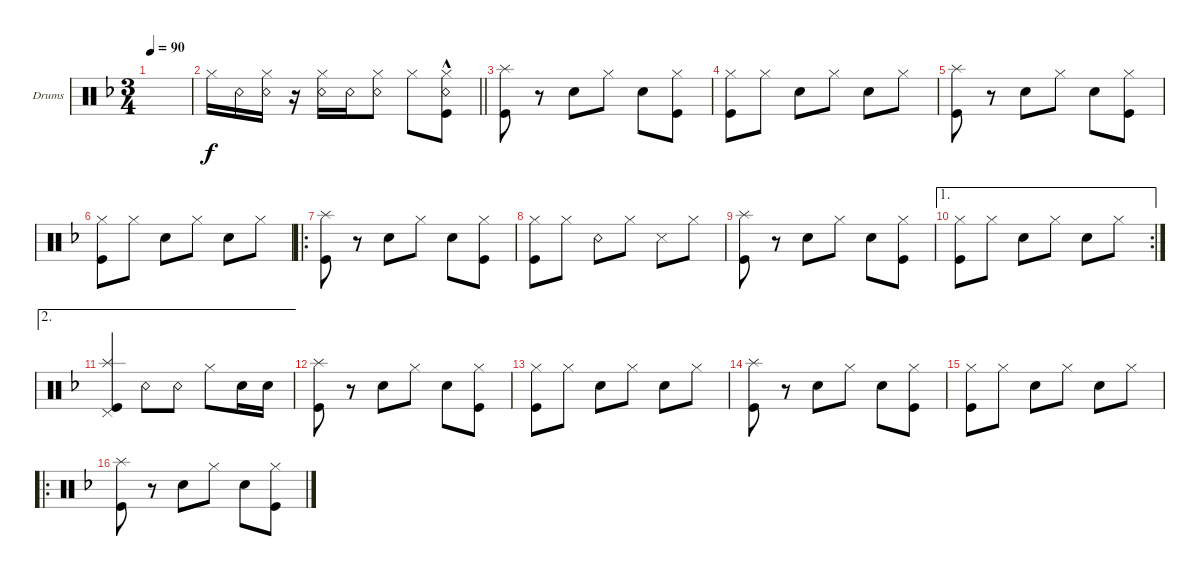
\defaultSystemsLayout 4
\bracketExtendMode groupsimilarinstruments
\firstSystemTrackNameOrientation horizontal
\otherSystemsTrackNameOrientation horizontal
\track ("Drumkit" "Drums") {instrument percussion}
\staff {score}
\articulation defaults
\ts (3 4)
\tempo 90
\clef neutral
\ks dminor
|
\scale
0.5
\barLineRight lightlight "Hi-Hat (closed)".16 "Snare (rim shot)".16
("Hi-Hat (closed)" "Snare (rim shot)").16 r.16 ("Hi-Hat (closed)" "Snare (rim shot)").16 "Snare (rim shot)".16 ("Hi-Hat (closed)" "Snare (rim shot)").8 "Hi-Hat (closed)".8 ("Hi-Hat (closed)" "Kick (hit)" "Snare (rim shot)"{hac}).8 |
\scale
0.25 ("Kick (hit)" "Splash (hit)").8 r.8 "Snare (hit) 2".8 "Hi-Hat (closed)".8 "Snare (hit) 2".8 ("Hi-Hat (closed)" "Kick (hit)").8 |
\scale
0.25 ("Kick (hit)" "Hi-Hat (closed)").8 "Hi-Hat (closed)".8 "Snare (hit) 2".8 "Hi-Hat (closed)".8 "Snare (hit) 2".8 "Hi-Hat (closed)".8 |
\scale
0.311111 ("Kick (hit)" "Splash (hit)").8 r.8 "Snare (hit) 2".8 "Hi-Hat (closed)".8 "Snare (hit) 2".8 ("Hi-Hat (closed)" "Kick (hit)").8 |
\scale
0.311111 ("Kick (hit)" "Hi-Hat (closed)").8 "Hi-Hat (closed)".8 "Snare (hit) 2".8 "Hi-Hat (closed)".8 "Snare (hit) 2".8 "Hi-Hat (closed)".8 |
\ro
\scale
0.377778 ("Kick (hit)" "Splash (hit)").8 r.8 "Snare (hit) 2".8 "Hi-Hat (closed)".8 "Snare (hit) 2".8 ("Hi-Hat (closed)" "Kick (hit)").8 |
\scale
0.321839 ("Kick (hit)" "Hi-Hat (closed)").8 "Hi-Hat (closed)".8 "Snare (rim shot)".8 "Hi-Hat (closed)".8 "Snare (side stick) 3".8 "Hi-Hat (closed)".8 |
\scale
0.321839 ("Kick (hit)" "Splash (hit)").8 r.8 "Snare (hit) 2".8 "Hi-Hat (closed)".8 "Snare (hit) 2".8 ("Hi-Hat (closed)" "Kick (hit)").8 |
\ae 1
\rc 2
\scale
0.356322 ("Kick (hit)" "Hi-Hat (closed)").8 "Hi-Hat (closed)".8 "Snare (hit) 2".8 "Hi-Hat (closed)".8 "Snare (hit) 2".8 "Hi-Hat (closed)".8 |
\ae 2
("Kick (hit)" "Splash (hit)" "Pedal Hi-Hat (hit)").4 "Snare (rim shot)".8 "Snare (rim shot)".8 "Hi-Hat (closed)".8 "Snare (hit) 2".16 "Snare (hit) 2".16 |
("Kick (hit)" "Splash (hit)").8 r.8 "Snare (hit) 2".8 "Hi-Hat (closed)".8 "Snare (hit) 2".8 ("Hi-Hat (closed)" "Kick (hit)").8 |
("Kick (hit)" "Hi-Hat (closed)").8 "Hi-Hat (closed)".8 "Snare (hit) 2".8 "Hi-Hat (closed)".8 "Snare (hit) 2".8 "Hi-Hat (closed)".8 |
("Kick (hit)" "Splash (hit)").8 r.8 "Snare (hit) 2".8 "Hi-Hat (closed)".8 "Snare (hit) 2".8 ("Hi-Hat (closed)" "Kick (hit)").8 |
("Kick (hit)" "Hi-Hat (closed)").8 "Hi-Hat (closed)".8 "Snare (hit) 2".8 "Hi-Hat (closed)".8 "Snare (hit) 2".8 "Hi-Hat (closed)".8 |
\ro
("Kick (hit)" "Splash (hit)").8 r.8 "Snare (hit) 2".8 "Hi-Hat (closed)".8 "Snare (hit) 2".8 ("Hi-Hat (closed)" "Kick (hit)").8
